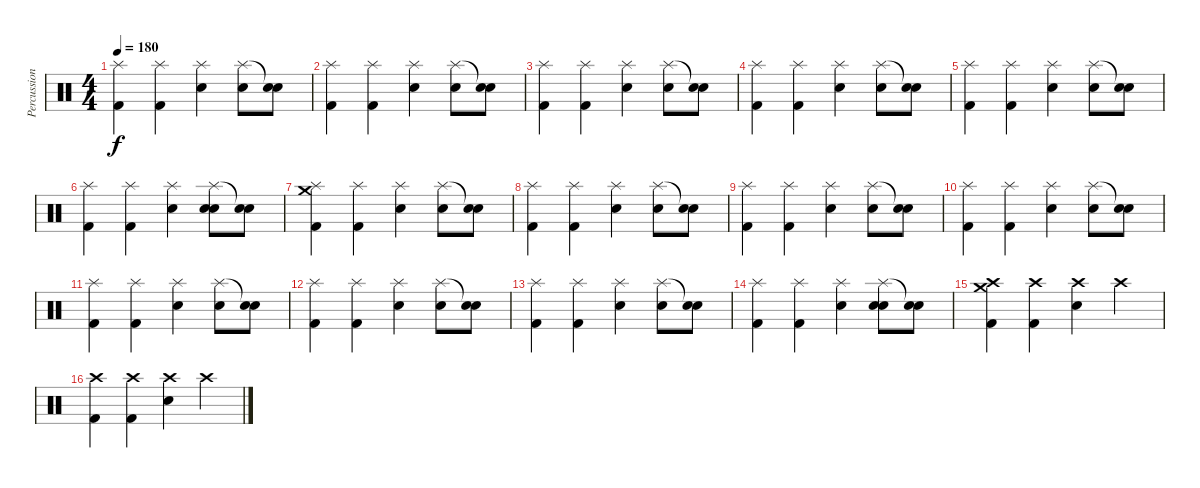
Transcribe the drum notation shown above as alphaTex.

\track ("Percussion" "Percussion") {instrument percussion}
\staff {score}
\articulation defaults
\ts (4 4)
\tempo 180
\clef neutral
\ks c
("Splash (hit)" "Kick (hit) 2").4{dy f} ("Splash (hit)" "Kick (hit) 2").4 ("Splash (hit)" "Electric Snare (hit)").4 ("Splash (hit)" "Snare (hit)").8 ("Snare (hit)"{t} "Electric Snare (hit)").8 |
("Splash (hit)" "Kick (hit) 2").4 ("Splash (hit)" "Kick (hit) 2").4 ("Splash (hit)" "Electric Snare (hit)").4 ("Splash (hit)" "Snare (hit)").8 ("Snare (hit)"{t} "Electric Snare (hit)").8 |
("Splash (hit)" "Kick (hit) 2").4 ("Splash (hit)" "Kick (hit) 2").4 ("Splash (hit)" "Electric Snare (hit)").4 ("Splash (hit)" "Snare (hit)").8 ("Snare (hit)"{t} "Electric Snare (hit)").8 |
("Splash (hit)" "Kick (hit) 2").4 ("Splash (hit)" "Kick (hit) 2").4 ("Splash (hit)" "Electric Snare (hit)").4 ("Splash (hit)" "Snare (hit)").8 ("Snare (hit)"{t} "Electric Snare (hit)").8 |
("Splash (hit)" "Kick (hit) 2").4 ("Splash (hit)" "Kick (hit) 2").4 ("Splash (hit)" "Electric Snare (hit)").4 ("Splash (hit)" "Snare (hit)").8 ("Snare (hit)"{t} "Electric Snare (hit)").8 |
("Splash (hit)" "Kick (hit) 2").4 ("Splash (hit)" "Kick (hit) 2").4 ("Splash (hit)" "Electric Snare (hit)").4 ("Splash (hit)" "Electric Snare (hit)" "Snare (hit)").8 ("Snare (hit)"{t} "Electric Snare (hit)").8 |
("Crash medium (hit)" "Splash (hit)" "Kick (hit) 2").4 ("Splash (hit)" "Kick (hit) 2").4 ("Splash (hit)" "Electric Snare (hit)").4 ("Splash (hit)" "Snare (hit)").8 ("Snare (hit)"{t} "Electric Snare (hit)").8 |
("Splash (hit)" "Kick (hit) 2").4 ("Splash (hit)" "Kick (hit) 2").4 ("Splash (hit)" "Electric Snare (hit)").4 ("Splash (hit)" "Snare (hit)").8 ("Snare (hit)"{t} "Electric Snare (hit)").8 |
("Splash (hit)" "Kick (hit) 2").4 ("Splash (hit)" "Kick (hit) 2").4 ("Splash (hit)" "Electric Snare (hit)").4 ("Splash (hit)" "Snare (hit)").8 ("Snare (hit)"{t} "Electric Snare (hit)").8 |
("Splash (hit)" "Kick (hit) 2").4 ("Splash (hit)" "Kick (hit) 2").4 ("Splash (hit)" "Electric Snare (hit)").4 ("Splash (hit)" "Snare (hit)").8 ("Snare (hit)"{t} "Electric Snare (hit)").8 |
("Splash (hit)" "Kick (hit) 2").4 ("Splash (hit)" "Kick (hit) 2").4 ("Splash (hit)" "Electric Snare (hit)").4 ("Splash (hit)" "Snare (hit)").8 ("Snare (hit)"{t} "Electric Snare (hit)").8 |
("Splash (hit)" "Kick (hit) 2").4 ("Splash (hit)" "Kick (hit) 2").4 ("Splash (hit)" "Electric Snare (hit)").4 ("Splash (hit)" "Snare (hit)").8 ("Snare (hit)"{t} "Electric Snare (hit)").8 |
("Splash (hit)" "Kick (hit) 2").4 ("Splash (hit)" "Kick (hit) 2").4 ("Splash (hit)" "Electric Snare (hit)").4 ("Splash (hit)" "Snare (hit)").8 ("Snare (hit)"{t} "Electric Snare (hit)").8 |
("Splash (hit)" "Kick (hit) 2").4 ("Splash (hit)" "Kick (hit) 2").4 ("Splash (hit)" "Electric Snare (hit)").4 ("Splash (hit)" "Electric Snare (hit)" "Snare (hit)").8 ("Snare (hit)"{t} "Electric Snare (hit)").8 |
("Crash medium (hit)" "Crash high (hit)" "Kick (hit) 2").4 ("Crash high (hit)" "Kick (hit) 2").4 ("Crash high (hit)" "Electric Snare (hit)").4 "Crash high (hit)".4 |
("Crash high (hit)" "Kick (hit) 2").4 ("Crash high (hit)" "Kick (hit) 2").4 ("Crash high (hit)" "Electric Snare (hit)").4 "Crash high (hit)".4
